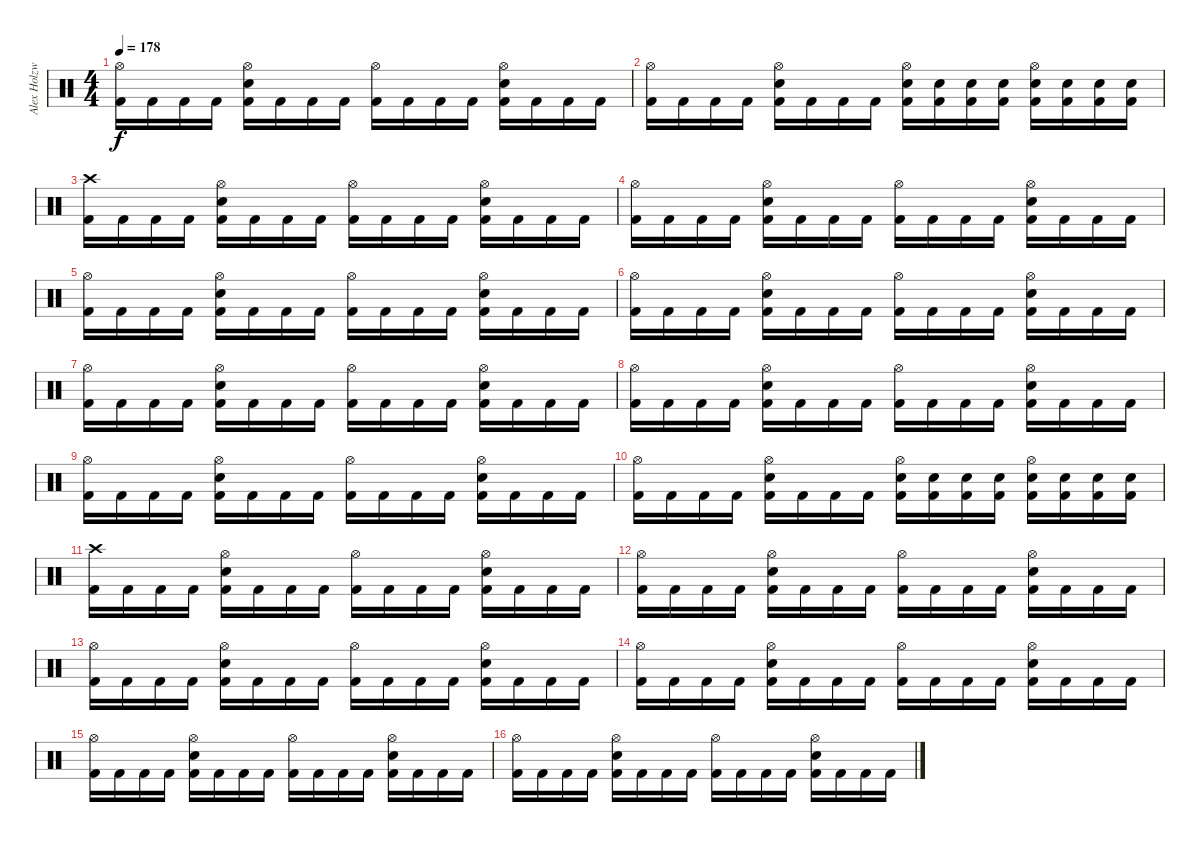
\track ("Alex Holzwarth" "Alex Holzw") {instrument percussion}
\staff {score}
\articulation defaults
\ts (4 4)
\tempo 178
\clef neutral
\ks c
("Hi-Hat (open)" "Kick (hit) 2").16{dy f} "Kick (hit) 2".16 "Kick (hit) 2".16 "Kick (hit) 2".16 ("Hi-Hat (open)" "Electric Snare (hit)" "Kick (hit) 2").16 "Kick (hit) 2".16 "Kick (hit) 2".16 "Kick (hit) 2".16 ("Hi-Hat (open)" "Kick (hit) 2").16 "Kick (hit) 2".16 "Kick (hit) 2".16 "Kick (hit) 2".16 ("Hi-Hat (open)" "Electric Snare (hit)" "Kick (hit) 2").16 "Kick (hit) 2".16 "Kick (hit) 2".16 "Kick (hit) 2".16 |
("Hi-Hat (open)" "Kick (hit) 2").16 "Kick (hit) 2".16 "Kick (hit) 2".16 "Kick (hit) 2".16 ("Hi-Hat (open)" "Electric Snare (hit)" "Kick (hit) 2").16 "Kick (hit) 2".16 "Kick (hit) 2".16 "Kick (hit) 2".16 ("Hi-Hat (open)" "Electric Snare (hit)" "Kick (hit) 2").16 ("Electric Snare (hit)" "Kick (hit) 2").16 ("Electric Snare (hit)" "Kick (hit) 2").16 ("Electric Snare (hit)" "Kick (hit) 2").16 ("Hi-Hat (open)" "Electric Snare (hit)" "Kick (hit) 2").16 ("Electric Snare (hit)" "Kick (hit) 2").16 ("Electric Snare (hit)" "Kick (hit) 2").16 ("Electric Snare (hit)" "Kick (hit) 2").16 |
("Crash high (hit)" "Kick (hit) 2").16 "Kick (hit) 2".16 "Kick (hit) 2".16 "Kick (hit) 2".16 ("Hi-Hat (open)" "Electric Snare (hit)" "Kick (hit) 2").16 "Kick (hit) 2".16 "Kick (hit) 2".16 "Kick (hit) 2".16 ("Hi-Hat (open)" "Kick (hit) 2").16 "Kick (hit) 2".16 "Kick (hit) 2".16 "Kick (hit) 2".16 ("Hi-Hat (open)" "Electric Snare (hit)" "Kick (hit) 2").16 "Kick (hit) 2".16 "Kick (hit) 2".16 "Kick (hit) 2".16 |
("Hi-Hat (open)" "Kick (hit) 2").16 "Kick (hit) 2".16 "Kick (hit) 2".16 "Kick (hit) 2".16 ("Hi-Hat (open)" "Electric Snare (hit)" "Kick (hit) 2").16 "Kick (hit) 2".16 "Kick (hit) 2".16 "Kick (hit) 2".16 ("Hi-Hat (open)" "Kick (hit) 2").16 "Kick (hit) 2".16 "Kick (hit) 2".16 "Kick (hit) 2".16 ("Hi-Hat (open)" "Electric Snare (hit)" "Kick (hit) 2").16 "Kick (hit) 2".16 "Kick (hit) 2".16 "Kick (hit) 2".16 |
("Hi-Hat (open)" "Kick (hit) 2").16 "Kick (hit) 2".16 "Kick (hit) 2".16 "Kick (hit) 2".16 ("Hi-Hat (open)" "Electric Snare (hit)" "Kick (hit) 2").16 "Kick (hit) 2".16 "Kick (hit) 2".16 "Kick (hit) 2".16 ("Hi-Hat (open)" "Kick (hit) 2").16 "Kick (hit) 2".16 "Kick (hit) 2".16 "Kick (hit) 2".16 ("Hi-Hat (open)" "Electric Snare (hit)" "Kick (hit) 2").16 "Kick (hit) 2".16 "Kick (hit) 2".16 "Kick (hit) 2".16 |
("Hi-Hat (open)" "Kick (hit) 2").16 "Kick (hit) 2".16 "Kick (hit) 2".16 "Kick (hit) 2".16 ("Hi-Hat (open)" "Electric Snare (hit)" "Kick (hit) 2").16 "Kick (hit) 2".16 "Kick (hit) 2".16 "Kick (hit) 2".16 ("Hi-Hat (open)" "Kick (hit) 2").16 "Kick (hit) 2".16 "Kick (hit) 2".16 "Kick (hit) 2".16 ("Hi-Hat (open)" "Electric Snare (hit)" "Kick (hit) 2").16 "Kick (hit) 2".16 "Kick (hit) 2".16 "Kick (hit) 2".16 |
("Hi-Hat (open)" "Kick (hit) 2").16 "Kick (hit) 2".16 "Kick (hit) 2".16 "Kick (hit) 2".16 ("Hi-Hat (open)" "Electric Snare (hit)" "Kick (hit) 2").16 "Kick (hit) 2".16 "Kick (hit) 2".16 "Kick (hit) 2".16 ("Hi-Hat (open)" "Kick (hit) 2").16 "Kick (hit) 2".16 "Kick (hit) 2".16 "Kick (hit) 2".16 ("Hi-Hat (open)" "Electric Snare (hit)" "Kick (hit) 2").16 "Kick (hit) 2".16 "Kick (hit) 2".16 "Kick (hit) 2".16 |
("Hi-Hat (open)" "Kick (hit) 2").16 "Kick (hit) 2".16 "Kick (hit) 2".16 "Kick (hit) 2".16 ("Hi-Hat (open)" "Electric Snare (hit)" "Kick (hit) 2").16 "Kick (hit) 2".16 "Kick (hit) 2".16 "Kick (hit) 2".16 ("Hi-Hat (open)" "Kick (hit) 2").16 "Kick (hit) 2".16 "Kick (hit) 2".16 "Kick (hit) 2".16 ("Hi-Hat (open)" "Electric Snare (hit)" "Kick (hit) 2").16 "Kick (hit) 2".16 "Kick (hit) 2".16 "Kick (hit) 2".16 |
("Hi-Hat (open)" "Kick (hit) 2").16 "Kick (hit) 2".16 "Kick (hit) 2".16 "Kick (hit) 2".16 ("Hi-Hat (open)" "Electric Snare (hit)" "Kick (hit) 2").16 "Kick (hit) 2".16 "Kick (hit) 2".16 "Kick (hit) 2".16 ("Hi-Hat (open)" "Kick (hit) 2").16 "Kick (hit) 2".16 "Kick (hit) 2".16 "Kick (hit) 2".16 ("Hi-Hat (open)" "Electric Snare (hit)" "Kick (hit) 2").16 "Kick (hit) 2".16 "Kick (hit) 2".16 "Kick (hit) 2".16 |
("Hi-Hat (open)" "Kick (hit) 2").16 "Kick (hit) 2".16 "Kick (hit) 2".16 "Kick (hit) 2".16 ("Hi-Hat (open)" "Electric Snare (hit)" "Kick (hit) 2").16 "Kick (hit) 2".16 "Kick (hit) 2".16 "Kick (hit) 2".16 ("Hi-Hat (open)" "Electric Snare (hit)" "Kick (hit) 2").16 ("Electric Snare (hit)" "Kick (hit) 2").16 ("Electric Snare (hit)" "Kick (hit) 2").16 ("Electric Snare (hit)" "Kick (hit) 2").16 ("Hi-Hat (open)" "Electric Snare (hit)" "Kick (hit) 2").16 ("Electric Snare (hit)" "Kick (hit) 2").16 ("Electric Snare (hit)" "Kick (hit) 2").16 ("Electric Snare (hit)" "Kick (hit) 2").16 |
("Crash high (hit)" "Kick (hit) 2").16 "Kick (hit) 2".16 "Kick (hit) 2".16 "Kick (hit) 2".16 ("Hi-Hat (open)" "Electric Snare (hit)" "Kick (hit) 2").16 "Kick (hit) 2".16 "Kick (hit) 2".16 "Kick (hit) 2".16 ("Hi-Hat (open)" "Kick (hit) 2").16 "Kick (hit) 2".16 "Kick (hit) 2".16 "Kick (hit) 2".16 ("Hi-Hat (open)" "Electric Snare (hit)" "Kick (hit) 2").16 "Kick (hit) 2".16 "Kick (hit) 2".16 "Kick (hit) 2".16 |
("Hi-Hat (open)" "Kick (hit) 2").16 "Kick (hit) 2".16 "Kick (hit) 2".16 "Kick (hit) 2".16 ("Hi-Hat (open)" "Electric Snare (hit)" "Kick (hit) 2").16 "Kick (hit) 2".16 "Kick (hit) 2".16 "Kick (hit) 2".16 ("Hi-Hat (open)" "Kick (hit) 2").16 "Kick (hit) 2".16 "Kick (hit) 2".16 "Kick (hit) 2".16 ("Hi-Hat (open)" "Electric Snare (hit)" "Kick (hit) 2").16 "Kick (hit) 2".16 "Kick (hit) 2".16 "Kick (hit) 2".16 |
("Hi-Hat (open)" "Kick (hit) 2").16 "Kick (hit) 2".16 "Kick (hit) 2".16 "Kick (hit) 2".16 ("Hi-Hat (open)" "Electric Snare (hit)" "Kick (hit) 2").16 "Kick (hit) 2".16 "Kick (hit) 2".16 "Kick (hit) 2".16 ("Hi-Hat (open)" "Kick (hit) 2").16 "Kick (hit) 2".16 "Kick (hit) 2".16 "Kick (hit) 2".16 ("Hi-Hat (open)" "Electric Snare (hit)" "Kick (hit) 2").16 "Kick (hit) 2".16 "Kick (hit) 2".16 "Kick (hit) 2".16 |
("Hi-Hat (open)" "Kick (hit) 2").16 "Kick (hit) 2".16 "Kick (hit) 2".16 "Kick (hit) 2".16 ("Hi-Hat (open)" "Electric Snare (hit)" "Kick (hit) 2").16 "Kick (hit) 2".16 "Kick (hit) 2".16 "Kick (hit) 2".16 ("Hi-Hat (open)" "Kick (hit) 2").16 "Kick (hit) 2".16 "Kick (hit) 2".16 "Kick (hit) 2".16 ("Hi-Hat (open)" "Electric Snare (hit)" "Kick (hit) 2").16 "Kick (hit) 2".16 "Kick (hit) 2".16 "Kick (hit) 2".16 |
("Hi-Hat (open)" "Kick (hit) 2").16 "Kick (hit) 2".16 "Kick (hit) 2".16 "Kick (hit) 2".16 ("Hi-Hat (open)" "Electric Snare (hit)" "Kick (hit) 2").16 "Kick (hit) 2".16 "Kick (hit) 2".16 "Kick (hit) 2".16 ("Hi-Hat (open)" "Kick (hit) 2").16 "Kick (hit) 2".16 "Kick (hit) 2".16 "Kick (hit) 2".16 ("Hi-Hat (open)" "Electric Snare (hit)" "Kick (hit) 2").16 "Kick (hit) 2".16 "Kick (hit) 2".16 "Kick (hit) 2".16 |
("Hi-Hat (open)" "Kick (hit) 2").16 "Kick (hit) 2".16 "Kick (hit) 2".16 "Kick (hit) 2".16 ("Hi-Hat (open)" "Electric Snare (hit)" "Kick (hit) 2").16 "Kick (hit) 2".16 "Kick (hit) 2".16 "Kick (hit) 2".16 ("Hi-Hat (open)" "Kick (hit) 2").16 "Kick (hit) 2".16 "Kick (hit) 2".16 "Kick (hit) 2".16 ("Hi-Hat (open)" "Electric Snare (hit)" "Kick (hit) 2").16 "Kick (hit) 2".16 "Kick (hit) 2".16 "Kick (hit) 2".16
